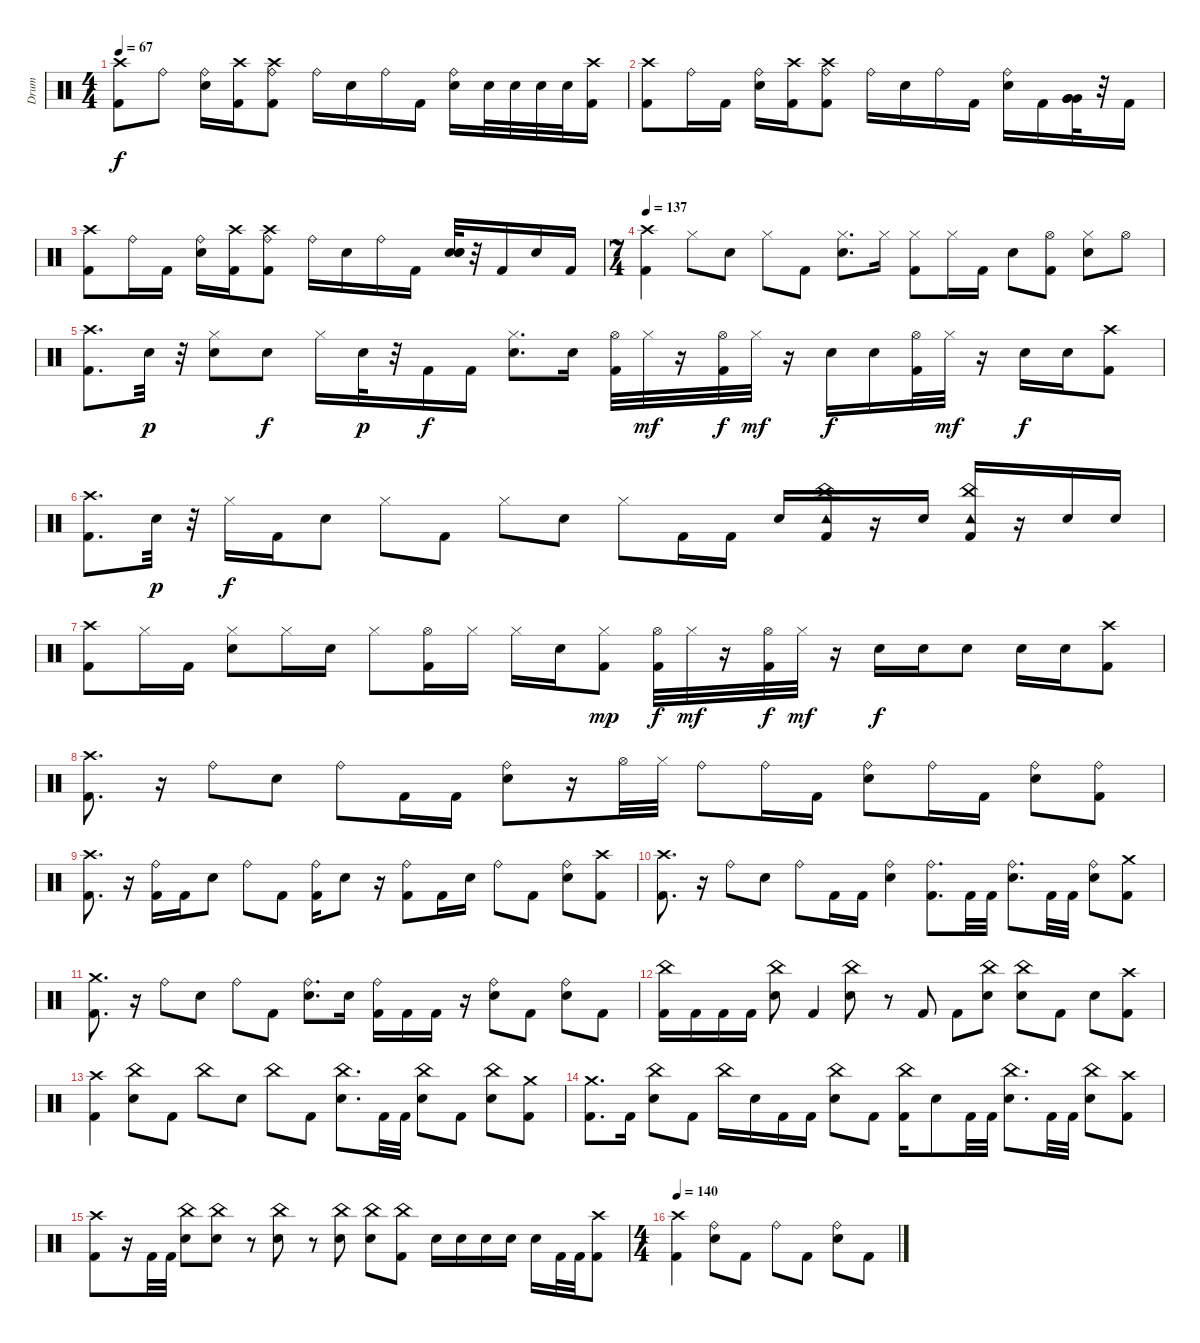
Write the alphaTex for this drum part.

\track ("Drum" "Drum") {instrument percussion}
\staff {score}
\articulation defaults
\ts (4 4)
\tempo 67
\clef neutral
\ks c
("Kick (hit) 2" "Crash high (hit)").8{dy f} "Ride (bell)".8 ("Ride (bell)" "Electric Snare (hit)").16 ("Kick (hit) 2" "Crash high (hit)").16 ("Ride (bell)" "Crash high (hit)" "Kick (hit) 2").8 "Ride (bell)".16 "Electric Snare (hit)".16 "Ride (bell)".16 "Kick (hit) 2".16 ("Ride (bell)" "Electric Snare (hit)").16 "Electric Snare (hit)".32 "Electric Snare (hit)".32 "Electric Snare (hit)".32 "Electric Snare (hit)".32 ("Crash high (hit)" "Kick (hit) 2").16 |
("Crash high (hit)" "Kick (hit) 2").8 "Ride (bell)".16 "Kick (hit) 2".16 ("Ride (bell)" "Electric Snare (hit)").16 ("Kick (hit) 2" "Crash high (hit)").16 ("Ride (bell)" "Crash high (hit)" "Kick (hit) 2").8 "Ride (bell)".16 "Electric Snare (hit)".16 "Ride (bell)".16 "Kick (hit) 2".16 ("Electric Snare (hit)" "Ride (bell)").16 "Kick (hit) 2".16 ("Very Low Tom (hit)" "Very Low Tom (hit)" "Very Low Tom (hit)").32 r.32 "Kick (hit) 2".16 |
("Kick (hit) 2" "Crash high (hit)").8 "Ride (bell)".16 "Kick (hit) 2".16 ("Ride (bell)" "Electric Snare (hit)").16 ("Kick (hit) 2" "Crash high (hit)").16 ("Ride (bell)" "Crash high (hit)" "Kick (hit) 2").8 "Ride (bell)".16 "Electric Snare (hit)".16 "Ride (bell)".16 "Kick (hit) 2".16 ("Electric Snare (hit)" "Electric Snare (hit)" "Electric Snare (hit)").32 r.32 "Kick (hit) 2".16 "Electric Snare (hit)".16 "Kick (hit) 2".16 |
\ts (7 4)
\tempo 137
("Crash high (hit)" "Kick (hit) 2").4 "Hi-Hat (closed)".8 "Electric Snare (hit)".8 "Hi-Hat (closed)".8 "Kick (hit) 2".8 ("Electric Snare (hit)" "Hi-Hat (closed)").8{d} "Hi-Hat (closed)".16 ("Kick (hit) 2" "Hi-Hat (closed)").8 "Hi-Hat (closed)".16 "Kick (hit) 2".16 "Electric Snare (hit)".8 ("Hi-Hat (open)" "Kick (hit) 2").8 ("Hi-Hat (closed)" "Electric Snare (hit)").8 "Hi-Hat (open)".8 |
("Kick (hit) 2" "Crash high (hit)").8{d} "Electric Snare (hit)".32{dy p} r.32 ("Hi-Hat (closed)" "Electric Snare (hit)").8 "Electric Snare (hit)".8{dy f} "Hi-Hat (closed)".16 "Electric Snare (hit)".32{dy p} r.32 "Kick (hit) 2".16{dy f} "Kick (hit) 2".16 ("Electric Snare (hit)" "Hi-Hat (closed)").8{d} "Electric Snare (hit)".16 ("Kick (hit) 2" "Hi-Hat (open)").32 "Hi-Hat (closed)".32{dy mf} r.16 ("Kick (hit) 2" "Hi-Hat (open)").32{dy f} "Hi-Hat (closed)".32{dy mf} r.16 "Electric Snare (hit)".16{dy f} "Electric Snare (hit)".16 ("Hi-Hat (open)" "Kick (hit) 2").32 "Hi-Hat (closed)".32{dy mf} r.16 "Electric Snare (hit)".16{dy f} "Electric Snare (hit)".16 ("Crash high (hit)" "Kick (hit) 2").8 |
("Kick (hit) 2" "Crash high (hit)").8{d} "Electric Snare (hit)".32{dy p} r.32 "Hi-Hat (closed)".16{dy f} "Kick (hit) 2".16 "Electric Snare (hit)".8 "Hi-Hat (closed)".8 "Kick (hit) 2".8 "Hi-Hat (closed)".8 "Electric Snare (hit)".8 "Hi-Hat (closed)".8 "Kick (hit) 2".16 "Kick (hit) 2".16 "Electric Snare (hit)".16 ("Kick (hit) 2" "China (hit)" "Tambourine (hit)").16 r.16 "Electric Snare (hit)".16 ("Kick (hit) 2" "China (hit)" "Tambourine (hit)").16 r.16 "Electric Snare (hit)".16 "Electric Snare (hit)".16 |
("Crash high (hit)" "Kick (hit) 2").8 "Hi-Hat (closed)".16 "Kick (hit) 2".16 ("Hi-Hat (closed)" "Electric Snare (hit)").8 "Hi-Hat (closed)".16 "Electric Snare (hit)".16 "Hi-Hat (closed)".8 ("Kick (hit) 2" "Hi-Hat (open)").16 "Hi-Hat (closed)".16 "Hi-Hat (closed)".16 "Electric Snare (hit)".16 ("Kick (hit) 2" "Hi-Hat (closed)").8{dy mp} ("Kick (hit) 2" "Hi-Hat (open)").32{dy f} "Hi-Hat (closed)".32{dy mf} r.16 ("Kick (hit) 2" "Hi-Hat (open)").32{dy f} "Hi-Hat (closed)".32{dy mf} r.16 "Electric Snare (hit)".16{dy f} "Electric Snare (hit)".16 "Electric Snare (hit)".8 "Electric Snare (hit)".16 "Electric Snare (hit)".16 ("Kick (hit) 2" "Crash high (hit)").8 |
("Crash high (hit)" "Kick (hit) 2").8{d} r.16 "Ride (bell)".8 "Electric Snare (hit)".8 "Ride (bell)".8 "Kick (hit) 2".16 "Kick (hit) 2".16 ("Ride (bell)" "Electric Snare (hit)").8 r.16 "Hi-Hat (open)".32 "Hi-Hat (closed)".32 "Ride (bell)".8 "Ride (bell)".16 "Kick (hit) 2".16 ("Ride (bell)" "Electric Snare (hit)").8 "Ride (bell)".16 "Kick (hit) 2".16 ("Ride (bell)" "Electric Snare (hit)").8 ("Kick (hit) 2" "Ride (bell)").8 |
("Kick (hit) 2" "Crash high (hit)").8{d} r.16 ("Ride (bell)" "Kick (hit) 2").16 "Kick (hit) 2".16 "Electric Snare (hit)".8 "Ride (bell)".8 "Kick (hit) 2".8 ("Kick (hit) 2" "Ride (bell)").16 "Electric Snare (hit)".8 r.16 ("Ride (bell)" "Kick (hit) 2").8 "Kick (hit) 2".16 "Electric Snare (hit)".16 "Ride (bell)".8 "Kick (hit) 2".8 ("Electric Snare (hit)" "Ride (bell)").8 ("Kick (hit) 2" "Crash high (hit)").8 |
("Kick (hit) 2" "Crash high (hit)").8{d} r.16 "Ride (bell)".8 "Electric Snare (hit)".8 "Ride (bell)".8 "Kick (hit) 2".16 "Kick (hit) 2".16 ("Ride (bell)" "Electric Snare (hit)").4 ("Ride (bell)" "Kick (hit) 2").8{d} "Kick (hit) 2".32 "Kick (hit) 2".32 ("Electric Snare (hit)" "Ride (bell)").8{d} "Kick (hit) 2".32 "Kick (hit) 2".32 ("Electric Snare (hit)" "Ride (bell)").8 ("Kick (hit) 2" "Crash medium (hit)").8 |
("Kick (hit) 2" "Crash medium (hit)").8{d} r.16 "Ride (bell)".8 "Electric Snare (hit)".8 "Ride (bell)".8 "Kick (hit) 2".8 ("Ride (bell)" "Electric Snare (hit)").8{d} "Electric Snare (hit)".16 ("Ride (bell)" "Kick (hit) 2").16 "Kick (hit) 2".16 "Kick (hit) 2".16 r.16 ("Ride (bell)" "Electric Snare (hit)").8 "Kick (hit) 2".8 ("Electric Snare (hit)" "Ride (bell)").8 "Kick (hit) 2".8 |
("China (hit)" "Kick (hit) 2").16 "Kick (hit) 2".16 "Kick (hit) 2".16 "Kick (hit) 2".16 ("Electric Snare (hit)" "China (hit)").8 "Kick (hit) 2".4 ("Electric Snare (hit)" "China (hit)").8 r.8 "Kick (hit) 2".8 "Kick (hit) 2".8 ("Electric Snare (hit)" "China (hit)").8 ("Electric Snare (hit)" "China (hit)").8 "Kick (hit) 2".8 "Electric Snare (hit)".8 ("Kick (hit) 2" "Crash high (hit)").8 |
("Crash high (hit)" "Kick (hit) 2").4 ("China (hit)" "Electric Snare (hit)").8 "Kick (hit) 2".8 "China (hit)".8 "Electric Snare (hit)".8 "China (hit)".8 "Kick (hit) 2".8 ("China (hit)" "Electric Snare (hit)").8{d} "Kick (hit) 2".32 "Kick (hit) 2".32 ("China (hit)" "Electric Snare (hit)").8 "Kick (hit) 2".8 ("China (hit)" "Electric Snare (hit)").8 ("Kick (hit) 2" "Crash medium (hit)").8 |
("Crash medium (hit)" "Kick (hit) 2").8{d} "Kick (hit) 2".16 ("China (hit)" "Electric Snare (hit)").8 "Kick (hit) 2".8 "China (hit)".16 "Electric Snare (hit)".16 "Kick (hit) 2".16 "Kick (hit) 2".16 ("China (hit)" "Electric Snare (hit)").8 "Kick (hit) 2".8 ("China (hit)" "Kick (hit) 2").16 "Electric Snare (hit)".8 "Kick (hit) 2".32 "Kick (hit) 2".32 ("China (hit)" "Electric Snare (hit)").8{d} "Kick (hit) 2".32 "Kick (hit) 2".32 ("China (hit)" "Electric Snare (hit)").8 ("Kick (hit) 2" "Crash high (hit)").8 |
("Crash high (hit)" "Kick (hit) 2").8 r.16 "Kick (hit) 2".32 "Kick (hit) 2".32 ("Electric Snare (hit)" "China (hit)").8 ("Electric Snare (hit)" "China (hit)").8 r.8 ("China (hit)" "Electric Snare (hit)").8 r.8 ("China (hit)" "Electric Snare (hit)").8 ("China (hit)" "Electric Snare (hit)").8 ("China (hit)" "Kick (hit) 2").8 "Electric Snare (hit)".16 "Electric Snare (hit)".16 "Electric Snare (hit)".16 "Electric Snare (hit)".16 "Electric Snare (hit)".16 "Kick (hit) 2".32 "Kick (hit) 2".32 ("Kick (hit) 2" "Crash high (hit)").8 |
\ts (4 4)
\tempo 140
("Kick (hit) 2" "Crash high (hit)").4 ("Electric Snare (hit)" "Ride (bell)").8 "Kick (hit) 2".8 "Ride (bell)".8 "Kick (hit) 2".8 ("Electric Snare (hit)" "Ride (bell)").8 "Kick (hit) 2".8
